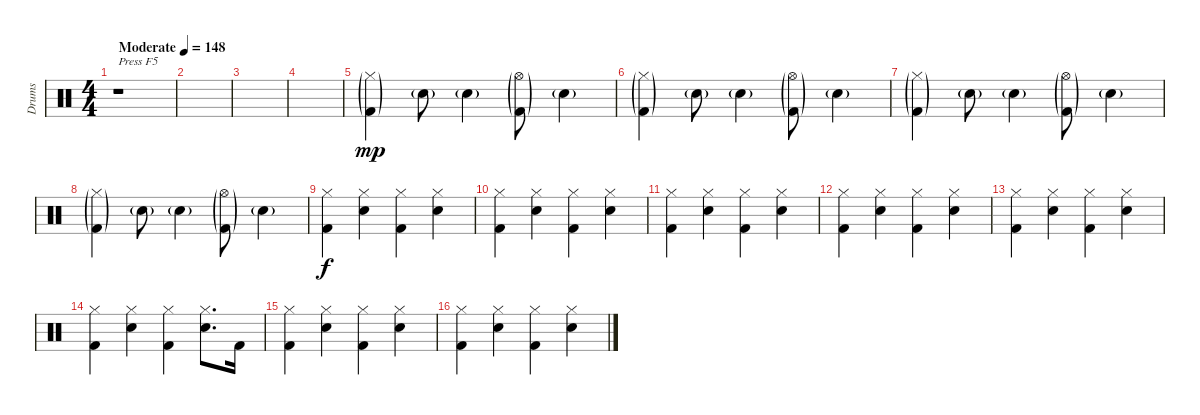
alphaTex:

\track ("Drums" "Drums") {instrument percussion}
\staff {score}
\articulation defaults
\ts (4 4)
\tempo (148 "Moderate")
\clef neutral
\ks c
r.1{txt "Press F5" dy mp} |
|
|
|
("Hi-Hat (closed)"{g} "Kick (hit) 2"{g}).4{volume 10 balance 16} "Electric Snare (hit)"{g}.8 "Electric Snare (hit)"{g}.4 ("Hi-Hat (open)"{g} "Kick (hit) 2"{g}).8 "Electric Snare (hit)"{g}.4 |
("Hi-Hat (closed)"{g} "Kick (hit) 2"{g}).4 "Electric Snare (hit)"{g}.8 "Electric Snare (hit)"{g}.4 ("Hi-Hat (open)"{g} "Kick (hit) 2"{g}).8 "Electric Snare (hit)"{g}.4 |
("Hi-Hat (closed)"{g} "Kick (hit) 2"{g}).4 "Electric Snare (hit)"{g}.8 "Electric Snare (hit)"{g}.4 ("Hi-Hat (open)"{g} "Kick (hit) 2"{g}).8 "Electric Snare (hit)"{g}.4 |
("Hi-Hat (closed)"{g} "Kick (hit) 2"{g}).4{volume 14} "Electric Snare (hit)"{g}.8 "Electric Snare (hit)"{g}.4 ("Hi-Hat (open)"{g} "Kick (hit) 2"{g}).8 "Electric Snare (hit)"{g}.4 |
("Hi-Hat (closed)" "Kick (hit) 2").4{dy f volume 14 balance 8} ("Hi-Hat (closed)" "Electric Snare (hit)").4 ("Hi-Hat (closed)" "Kick (hit) 2").4 ("Hi-Hat (closed)" "Electric Snare (hit)").4 |
("Hi-Hat (closed)" "Kick (hit) 2").4 ("Hi-Hat (closed)" "Electric Snare (hit)").4 ("Hi-Hat (closed)" "Kick (hit) 2").4 ("Hi-Hat (closed)" "Electric Snare (hit)").4 |
("Hi-Hat (closed)" "Kick (hit) 2").4 ("Hi-Hat (closed)" "Electric Snare (hit)").4 ("Hi-Hat (closed)" "Kick (hit) 2").4 ("Hi-Hat (closed)" "Electric Snare (hit)").4 |
("Hi-Hat (closed)" "Kick (hit) 2").4 ("Hi-Hat (closed)" "Electric Snare (hit)").4 ("Hi-Hat (closed)" "Kick (hit) 2").4 ("Hi-Hat (closed)" "Electric Snare (hit)").4 |
("Hi-Hat (closed)" "Kick (hit) 2").4 ("Hi-Hat (closed)" "Electric Snare (hit)").4 ("Hi-Hat (closed)" "Kick (hit) 2").4 ("Hi-Hat (closed)" "Electric Snare (hit)").4 |
("Hi-Hat (closed)" "Kick (hit) 2").4 ("Hi-Hat (closed)" "Electric Snare (hit)").4 ("Hi-Hat (closed)" "Kick (hit) 2").4 ("Hi-Hat (closed)" "Electric Snare (hit)").8{d} "Kick (hit) 2".16 |
("Hi-Hat (closed)" "Kick (hit) 2").4 ("Hi-Hat (closed)" "Electric Snare (hit)").4 ("Hi-Hat (closed)" "Kick (hit) 2").4 ("Hi-Hat (closed)" "Electric Snare (hit)").4 |
("Hi-Hat (closed)" "Kick (hit) 2").4 ("Hi-Hat (closed)" "Electric Snare (hit)").4 ("Hi-Hat (closed)" "Kick (hit) 2").4 ("Hi-Hat (closed)" "Electric Snare (hit)").4
